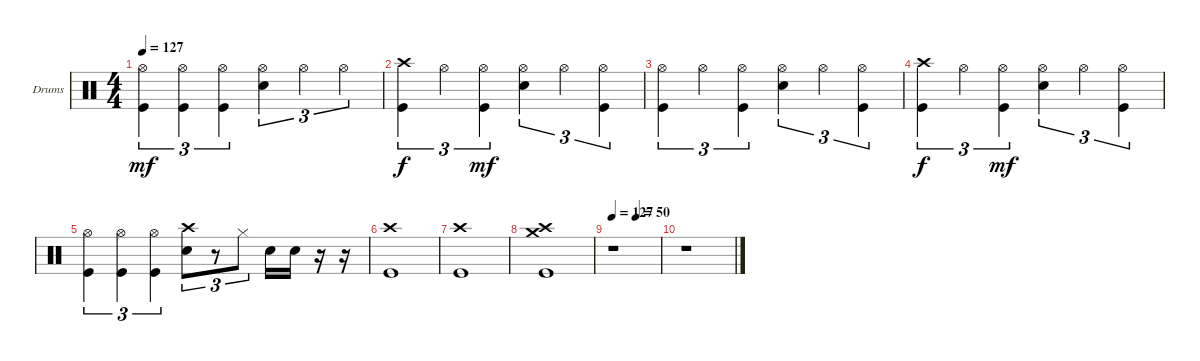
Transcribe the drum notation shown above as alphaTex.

\bracketExtendMode groupsimilarinstruments
\firstSystemTrackNameOrientation horizontal
\otherSystemsTrackNameOrientation horizontal
\track ("Drumkit" "Drums") {instrument percussion}
\staff {score}
\articulation defaults
\ts (4 4)
\tempo 127
\clef neutral
\ks c
("Kick (hit)" "Hi-Hat (open)").4{tu (3 2) dy mf} ("Hi-Hat (open)" "Kick (hit)").4{tu (3 2)} ("Hi-Hat (open)" "Kick (hit)").4{tu (3 2)} ("Hi-Hat (open)" "Snare (hit) 2").4{tu (3 2)} "Hi-Hat (open)".4{tu (3 2)} "Hi-Hat (open)".4{tu (3 2)} |
("Crash high (hit)" "Kick (hit)").4{tu (3 2) dy f} "Hi-Hat (open)".4{tu (3 2)} ("Hi-Hat (open)" "Kick (hit)").4{tu (3 2) dy mf} ("Hi-Hat (open)" "Snare (hit) 2").4{tu (3 2)} "Hi-Hat (open)".4{tu (3 2)} ("Hi-Hat (open)" "Kick (hit)").4{tu (3 2)} |
("Kick (hit)" "Hi-Hat (open)").4{tu (3 2)} "Hi-Hat (open)".4{tu (3 2)} ("Hi-Hat (open)" "Kick (hit)").4{tu (3 2)} ("Hi-Hat (open)" "Snare (hit) 2").4{tu (3 2)} "Hi-Hat (open)".4{tu (3 2)} ("Hi-Hat (open)" "Kick (hit)").4{tu (3 2)} |
("Crash high (hit)" "Kick (hit)").4{tu (3 2) dy f} "Hi-Hat (open)".4{tu (3 2)} ("Hi-Hat (open)" "Kick (hit)").4{tu (3 2) dy mf} ("Hi-Hat (open)" "Snare (hit) 2").4{tu (3 2)} "Hi-Hat (open)".4{tu (3 2)} ("Hi-Hat (open)" "Kick (hit)").4{tu (3 2)} |
("Kick (hit)" "Hi-Hat (open)").4{tu (3 2)} ("Hi-Hat (open)" "Kick (hit)").4{tu (3 2)} ("Kick (hit)" "Hi-Hat (open)").4{tu (3 2)} ("Snare (hit) 2" "Crash high (hit)").8{tu (3 2)} r.8{tu (3 2)} "Hi-Hat (closed)".8{tu (3 2)} "Snare (hit) 2".16 "Snare (hit) 2".16 r.16 r.16 |
("Kick (hit)" "Crash high (hit)").1 |
("Kick (hit)" "Crash high (hit)").1 |
("Kick (hit)" "Crash high (hit)" "Crash medium (hit)").1 |
\tempo 127
\tempo (50 0.5)
r.1 |
r.1
